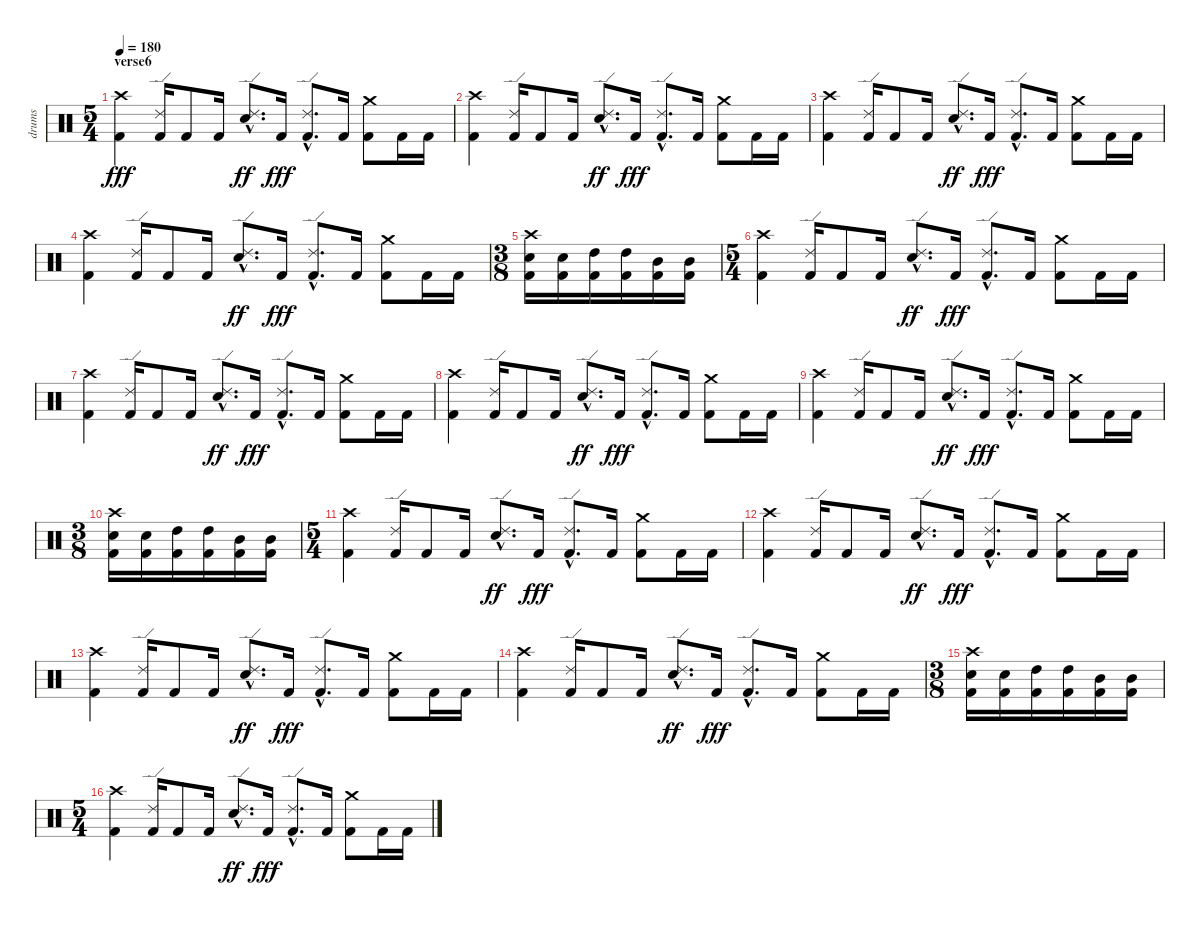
\track ("drums" "drums") {instrument percussion}
\staff {score}
\articulation defaults
\ts (5 4)
\section ("" "verse6")
\tempo 180
\clef neutral
\ks c
("Crash high (hit)" "Kick (hit) 2").4{dy fff} ("Ride (edge) 2" "Kick (hit) 2").16 "Kick (hit) 2".8 "Kick (hit) 2".16 ("Ride (edge) 2"{hac} "Snare (hit) 2"{hac}).8{d dy ff} "Kick (hit) 2".16{dy fff} ("Ride (edge) 2"{hac} "Kick (hit) 2"{hac}).8{d} "Kick (hit) 2".16 ("Crash medium (hit)" "Kick (hit) 2").8 "Kick (hit) 2".16 "Kick (hit) 2".16 |
("Crash high (hit)" "Kick (hit) 2").4 ("Ride (edge) 2" "Kick (hit) 2").16 "Kick (hit) 2".8 "Kick (hit) 2".16 ("Ride (edge) 2"{hac} "Snare (hit) 2"{hac}).8{d dy ff} "Kick (hit) 2".16{dy fff} ("Ride (edge) 2"{hac} "Kick (hit) 2"{hac}).8{d} "Kick (hit) 2".16 ("Crash medium (hit)" "Kick (hit) 2").8 "Kick (hit) 2".16 "Kick (hit) 2".16 |
("Crash high (hit)" "Kick (hit) 2").4 ("Ride (edge) 2" "Kick (hit) 2").16 "Kick (hit) 2".8 "Kick (hit) 2".16 ("Ride (edge) 2"{hac} "Snare (hit) 2"{hac}).8{d dy ff} "Kick (hit) 2".16{dy fff} ("Ride (edge) 2"{hac} "Kick (hit) 2"{hac}).8{d} "Kick (hit) 2".16 ("Crash medium (hit)" "Kick (hit) 2").8 "Kick (hit) 2".16 "Kick (hit) 2".16 |
("Crash high (hit)" "Kick (hit) 2").4 ("Ride (edge) 2" "Kick (hit) 2").16 "Kick (hit) 2".8 "Kick (hit) 2".16 ("Ride (edge) 2"{hac} "Snare (hit) 2"{hac}).8{d dy ff} "Kick (hit) 2".16{dy fff} ("Ride (edge) 2"{hac} "Kick (hit) 2"{hac}).8{d} "Kick (hit) 2".16 ("Crash medium (hit)" "Kick (hit) 2").8 "Kick (hit) 2".16 "Kick (hit) 2".16 |
\ts (3 8)
("Crash high (hit)" "Snare (hit) 2" "Kick (hit) 2").16 ("Snare (hit) 2" "Kick (hit) 2").16 ("High Tom (hit)" "Kick (hit) 2").16 ("High Tom (hit)" "Kick (hit) 2").16 ("Mid Tom (hit)" "Kick (hit) 2").16 ("Mid Tom (hit)" "Kick (hit) 2").16 |
\ts (5 4)
("Crash high (hit)" "Kick (hit) 2").4 ("Ride (edge) 2" "Kick (hit) 2").16 "Kick (hit) 2".8 "Kick (hit) 2".16 ("Ride (edge) 2"{hac} "Snare (hit) 2"{hac}).8{d dy ff} "Kick (hit) 2".16{dy fff} ("Ride (edge) 2"{hac} "Kick (hit) 2"{hac}).8{d} "Kick (hit) 2".16 ("Crash medium (hit)" "Kick (hit) 2").8 "Kick (hit) 2".16 "Kick (hit) 2".16 |
("Crash high (hit)" "Kick (hit) 2").4 ("Ride (edge) 2" "Kick (hit) 2").16 "Kick (hit) 2".8 "Kick (hit) 2".16 ("Ride (edge) 2"{hac} "Snare (hit) 2"{hac}).8{d dy ff} "Kick (hit) 2".16{dy fff} ("Ride (edge) 2"{hac} "Kick (hit) 2"{hac}).8{d} "Kick (hit) 2".16 ("Crash medium (hit)" "Kick (hit) 2").8 "Kick (hit) 2".16 "Kick (hit) 2".16 |
("Crash high (hit)" "Kick (hit) 2").4 ("Ride (edge) 2" "Kick (hit) 2").16 "Kick (hit) 2".8 "Kick (hit) 2".16 ("Ride (edge) 2"{hac} "Snare (hit) 2"{hac}).8{d dy ff} "Kick (hit) 2".16{dy fff} ("Ride (edge) 2"{hac} "Kick (hit) 2"{hac}).8{d} "Kick (hit) 2".16 ("Crash medium (hit)" "Kick (hit) 2").8 "Kick (hit) 2".16 "Kick (hit) 2".16 |
("Crash high (hit)" "Kick (hit) 2").4 ("Ride (edge) 2" "Kick (hit) 2").16 "Kick (hit) 2".8 "Kick (hit) 2".16 ("Ride (edge) 2"{hac} "Snare (hit) 2"{hac}).8{d dy ff} "Kick (hit) 2".16{dy fff} ("Ride (edge) 2"{hac} "Kick (hit) 2"{hac}).8{d} "Kick (hit) 2".16 ("Crash medium (hit)" "Kick (hit) 2").8 "Kick (hit) 2".16 "Kick (hit) 2".16 |
\ts (3 8)
("Crash high (hit)" "Snare (hit) 2" "Kick (hit) 2").16 ("Snare (hit) 2" "Kick (hit) 2").16 ("High Tom (hit)" "Kick (hit) 2").16 ("High Tom (hit)" "Kick (hit) 2").16 ("Mid Tom (hit)" "Kick (hit) 2").16 ("Mid Tom (hit)" "Kick (hit) 2").16 |
\ts (5 4)
("Crash high (hit)" "Kick (hit) 2").4 ("Ride (edge) 2" "Kick (hit) 2").16 "Kick (hit) 2".8 "Kick (hit) 2".16 ("Ride (edge) 2"{hac} "Snare (hit) 2"{hac}).8{d dy ff} "Kick (hit) 2".16{dy fff} ("Ride (edge) 2"{hac} "Kick (hit) 2"{hac}).8{d} "Kick (hit) 2".16 ("Crash medium (hit)" "Kick (hit) 2").8 "Kick (hit) 2".16 "Kick (hit) 2".16 |
("Crash high (hit)" "Kick (hit) 2").4 ("Ride (edge) 2" "Kick (hit) 2").16 "Kick (hit) 2".8 "Kick (hit) 2".16 ("Ride (edge) 2"{hac} "Snare (hit) 2"{hac}).8{d dy ff} "Kick (hit) 2".16{dy fff} ("Ride (edge) 2"{hac} "Kick (hit) 2"{hac}).8{d} "Kick (hit) 2".16 ("Crash medium (hit)" "Kick (hit) 2").8 "Kick (hit) 2".16 "Kick (hit) 2".16 |
("Crash high (hit)" "Kick (hit) 2").4 ("Ride (edge) 2" "Kick (hit) 2").16 "Kick (hit) 2".8 "Kick (hit) 2".16 ("Ride (edge) 2"{hac} "Snare (hit) 2"{hac}).8{d dy ff} "Kick (hit) 2".16{dy fff} ("Ride (edge) 2"{hac} "Kick (hit) 2"{hac}).8{d} "Kick (hit) 2".16 ("Crash medium (hit)" "Kick (hit) 2").8 "Kick (hit) 2".16 "Kick (hit) 2".16 |
("Crash high (hit)" "Kick (hit) 2").4 ("Ride (edge) 2" "Kick (hit) 2").16 "Kick (hit) 2".8 "Kick (hit) 2".16 ("Ride (edge) 2"{hac} "Snare (hit) 2"{hac}).8{d dy ff} "Kick (hit) 2".16{dy fff} ("Ride (edge) 2"{hac} "Kick (hit) 2"{hac}).8{d} "Kick (hit) 2".16 ("Crash medium (hit)" "Kick (hit) 2").8 "Kick (hit) 2".16 "Kick (hit) 2".16 |
\ts (3 8)
("Crash high (hit)" "Snare (hit) 2" "Kick (hit) 2").16 ("Snare (hit) 2" "Kick (hit) 2").16 ("High Tom (hit)" "Kick (hit) 2").16 ("High Tom (hit)" "Kick (hit) 2").16 ("Mid Tom (hit)" "Kick (hit) 2").16 ("Mid Tom (hit)" "Kick (hit) 2").16 |
\ts (5 4)
("Crash high (hit)" "Kick (hit) 2").4 ("Ride (edge) 2" "Kick (hit) 2").16 "Kick (hit) 2".8 "Kick (hit) 2".16 ("Ride (edge) 2"{hac} "Snare (hit) 2"{hac}).8{d dy ff} "Kick (hit) 2".16{dy fff} ("Ride (edge) 2"{hac} "Kick (hit) 2"{hac}).8{d} "Kick (hit) 2".16 ("Crash medium (hit)" "Kick (hit) 2").8 "Kick (hit) 2".16 "Kick (hit) 2".16
